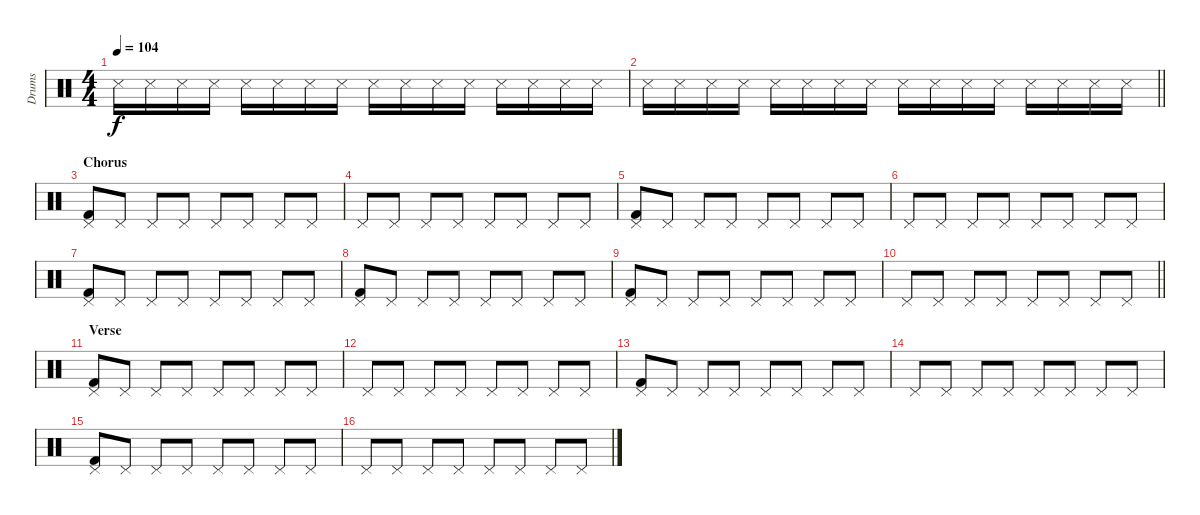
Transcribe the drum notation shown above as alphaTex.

\track ("Drums" "Drums") {instrument percussion}
\staff {score}
\articulation defaults
\ts (4 4)
\tempo 104
\clef neutral
\ks c "Snare (side stick) 3".16{dy f} "Snare (side stick) 3".16 "Snare (side stick) 3".16 "Snare (side stick) 3".16 "Snare (side stick) 3".16 "Snare (side stick) 3".16 "Snare (side stick) 3".16 "Snare (side stick) 3".16 "Snare (side stick) 3".16 "Snare (side stick) 3".16 "Snare (side stick) 3".16 "Snare (side stick) 3".16 "Snare (side stick) 3".16 "Snare (side stick) 3".16 "Snare (side stick) 3".16 "Snare (side stick) 3".16
|
\barLineRight lightlight "Snare (side stick) 3".16 "Snare (side stick) 3".16 "Snare (side stick) 3".16 "Snare (side stick) 3".16 "Snare (side stick) 3".16 "Snare (side stick) 3".16 "Snare (side stick) 3".16 "Snare (side stick) 3".16 "Snare (side stick) 3".16 "Snare (side stick) 3".16 "Snare (side stick) 3".16 "Snare (side stick) 3".16 "Snare (side stick) 3".16 "Snare (side stick) 3".16 "Snare (side stick) 3".16 "Snare (side stick) 3".16
|
\section ("" "Chorus")
("Pedal Hi-Hat (hit)" "Kick (hit) 2").8 "Pedal Hi-Hat (hit)".8 "Pedal Hi-Hat (hit)".8 "Pedal Hi-Hat (hit)".8 "Pedal Hi-Hat (hit)".8 "Pedal Hi-Hat (hit)".8 "Pedal Hi-Hat (hit)".8 "Pedal Hi-Hat (hit)".8 |
"Pedal Hi-Hat (hit)".8 "Pedal Hi-Hat (hit)".8 "Pedal Hi-Hat (hit)".8 "Pedal Hi-Hat (hit)".8 "Pedal Hi-Hat (hit)".8 "Pedal Hi-Hat (hit)".8 "Pedal Hi-Hat (hit)".8 "Pedal Hi-Hat (hit)".8 |
("Pedal Hi-Hat (hit)" "Kick (hit) 2").8 "Pedal Hi-Hat (hit)".8 "Pedal Hi-Hat (hit)".8 "Pedal Hi-Hat (hit)".8 "Pedal Hi-Hat (hit)".8 "Pedal Hi-Hat (hit)".8 "Pedal Hi-Hat (hit)".8 "Pedal Hi-Hat (hit)".8 |
"Pedal Hi-Hat (hit)".8 "Pedal Hi-Hat (hit)".8 "Pedal Hi-Hat (hit)".8 "Pedal Hi-Hat (hit)".8 "Pedal Hi-Hat (hit)".8 "Pedal Hi-Hat (hit)".8 "Pedal Hi-Hat (hit)".8 "Pedal Hi-Hat (hit)".8 |
("Pedal Hi-Hat (hit)" "Kick (hit) 2").8 "Pedal Hi-Hat (hit)".8 "Pedal Hi-Hat (hit)".8 "Pedal Hi-Hat (hit)".8 "Pedal Hi-Hat (hit)".8 "Pedal Hi-Hat (hit)".8 "Pedal Hi-Hat (hit)".8 "Pedal Hi-Hat (hit)".8 |
("Pedal Hi-Hat (hit)" "Kick (hit) 2").8 "Pedal Hi-Hat (hit)".8 "Pedal Hi-Hat (hit)".8 "Pedal Hi-Hat (hit)".8 "Pedal Hi-Hat (hit)".8 "Pedal Hi-Hat (hit)".8 "Pedal Hi-Hat (hit)".8 "Pedal Hi-Hat (hit)".8 |
("Pedal Hi-Hat (hit)" "Kick (hit) 2").8 "Pedal Hi-Hat (hit)".8 "Pedal Hi-Hat (hit)".8 "Pedal Hi-Hat (hit)".8 "Pedal Hi-Hat (hit)".8 "Pedal Hi-Hat (hit)".8 "Pedal Hi-Hat (hit)".8 "Pedal Hi-Hat (hit)".8 |
\barLineRight lightlight "Pedal Hi-Hat (hit)".8 "Pedal Hi-Hat (hit)".8 "Pedal Hi-Hat (hit)".8 "Pedal Hi-Hat (hit)".8 "Pedal Hi-Hat (hit)".8 "Pedal Hi-Hat (hit)".8 "Pedal Hi-Hat (hit)".8 "Pedal Hi-Hat (hit)".8
|
\section ("" "Verse")
("Pedal Hi-Hat (hit)" "Kick (hit) 2").8 "Pedal Hi-Hat (hit)".8 "Pedal Hi-Hat (hit)".8 "Pedal Hi-Hat (hit)".8 "Pedal Hi-Hat (hit)".8 "Pedal Hi-Hat (hit)".8 "Pedal Hi-Hat (hit)".8 "Pedal Hi-Hat (hit)".8 |
"Pedal Hi-Hat (hit)".8 "Pedal Hi-Hat (hit)".8 "Pedal Hi-Hat (hit)".8 "Pedal Hi-Hat (hit)".8 "Pedal Hi-Hat (hit)".8 "Pedal Hi-Hat (hit)".8 "Pedal Hi-Hat (hit)".8 "Pedal Hi-Hat (hit)".8 |
("Pedal Hi-Hat (hit)" "Kick (hit) 2").8 "Pedal Hi-Hat (hit)".8 "Pedal Hi-Hat (hit)".8 "Pedal Hi-Hat (hit)".8 "Pedal Hi-Hat (hit)".8 "Pedal Hi-Hat (hit)".8 "Pedal Hi-Hat (hit)".8 "Pedal Hi-Hat (hit)".8 |
"Pedal Hi-Hat (hit)".8 "Pedal Hi-Hat (hit)".8 "Pedal Hi-Hat (hit)".8 "Pedal Hi-Hat (hit)".8 "Pedal Hi-Hat (hit)".8 "Pedal Hi-Hat (hit)".8 "Pedal Hi-Hat (hit)".8 "Pedal Hi-Hat (hit)".8 |
("Pedal Hi-Hat (hit)" "Kick (hit) 2").8 "Pedal Hi-Hat (hit)".8 "Pedal Hi-Hat (hit)".8 "Pedal Hi-Hat (hit)".8 "Pedal Hi-Hat (hit)".8 "Pedal Hi-Hat (hit)".8 "Pedal Hi-Hat (hit)".8 "Pedal Hi-Hat (hit)".8 |
"Pedal Hi-Hat (hit)".8 "Pedal Hi-Hat (hit)".8 "Pedal Hi-Hat (hit)".8 "Pedal Hi-Hat (hit)".8 "Pedal Hi-Hat (hit)".8 "Pedal Hi-Hat (hit)".8 "Pedal Hi-Hat (hit)".8 "Pedal Hi-Hat (hit)".8
